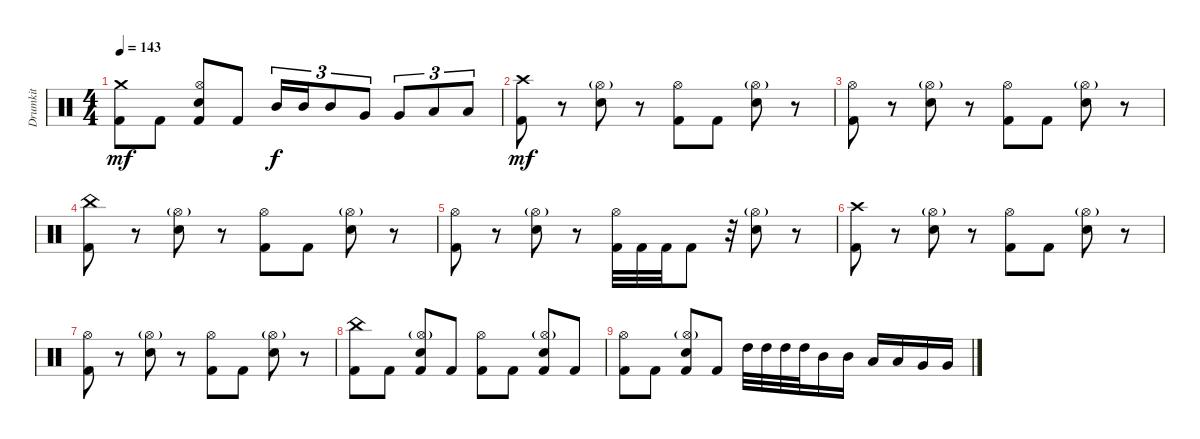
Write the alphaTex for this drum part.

\track ("Drumkit" "Drumkit") {instrument percussion}
\staff {score}
\articulation defaults
\ts (4 4)
\tempo 143
\clef neutral
\ks c
("Crash medium (hit)" "Kick (hit) 2").8{dy mf} "Kick (hit) 2".8 ("Hi-Hat (open)" "Kick (hit) 2" "Snare (hit) 2").8 "Kick (hit) 2".8 "Mid Tom (hit)".16{tu (3 2) dy f} "Mid Tom (hit)".16{tu (3 2)} "Mid Tom (hit)".8{tu (3 2)} "Very Low Tom (hit)".8{tu (3 2)} "Very Low Tom (hit)".8{tu (3 2)} "Low Tom (hit)".8{tu (3 2)} "Low Tom (hit)".8{tu (3 2)} |
("Crash high (hit)" "Kick (hit) 2").8{dy mf} r.8 ("Hi-Hat (open)"{g} "Snare (hit) 2").8 r.8 ("Hi-Hat (open)" "Kick (hit) 2").8 "Kick (hit) 2".8 ("Hi-Hat (open)"{g} "Snare (hit) 2").8 r.8 |
("Hi-Hat (open)" "Kick (hit) 2").8 r.8 ("Hi-Hat (open)"{g} "Snare (hit) 2").8 r.8 ("Hi-Hat (open)" "Kick (hit) 2").8 "Kick (hit) 2".8 ("Hi-Hat (open)"{g} "Snare (hit) 2").8 r.8 |
("China (hit)" "Kick (hit) 2").8 r.8 ("Hi-Hat (open)"{g} "Snare (hit) 2").8 r.8 ("Hi-Hat (open)" "Kick (hit) 2").8 "Kick (hit) 2".8 ("Hi-Hat (open)"{g} "Snare (hit) 2").8 r.8 |
("Hi-Hat (open)" "Kick (hit) 2").8 r.8 ("Hi-Hat (open)"{g} "Snare (hit) 2").8 r.8 ("Hi-Hat (open)" "Kick (hit) 2").32 "Kick (hit) 2".32 "Kick (hit) 2".32 "Kick (hit) 2".8 r.32 ("Hi-Hat (open)"{g} "Snare (hit) 2").8 r.8 |
("Crash high (hit)" "Kick (hit) 2").8 r.8 ("Hi-Hat (open)"{g} "Snare (hit) 2").8 r.8 ("Hi-Hat (open)" "Kick (hit) 2").8 "Kick (hit) 2".8 ("Hi-Hat (open)"{g} "Snare (hit) 2").8 r.8 |
("Hi-Hat (open)" "Kick (hit) 2").8 r.8 ("Hi-Hat (open)"{g} "Snare (hit) 2").8 r.8 ("Hi-Hat (open)" "Kick (hit) 2").8 "Kick (hit) 2".8 ("Hi-Hat (open)"{g} "Snare (hit) 2").8 r.8 |
("China (hit)" "Kick (hit) 2").8 "Kick (hit) 2".8 ("Hi-Hat (open)"{g} "Kick (hit) 2" "Snare (hit) 2").8 "Kick (hit) 2".8 ("Hi-Hat (open)" "Kick (hit) 2").8 "Kick (hit) 2".8 ("Hi-Hat (open)"{g} "Kick (hit) 2" "Snare (hit) 2").8 "Kick (hit) 2".8 |
("Hi-Hat (open)" "Kick (hit) 2").8 "Kick (hit) 2".8 ("Hi-Hat (open)"{g} "Kick (hit) 2" "Snare (hit) 2").8 "Kick (hit) 2".8 "High Tom (hit)".32 "High Tom (hit)".32 "High Tom (hit)".32 "High Tom (hit)".32 "Mid Tom (hit)".16 "Mid Tom (hit)".16 "Low Tom (hit)".16 "Low Tom (hit)".16 "Very Low Tom (hit)".16 "Very Low Tom (hit)".16
